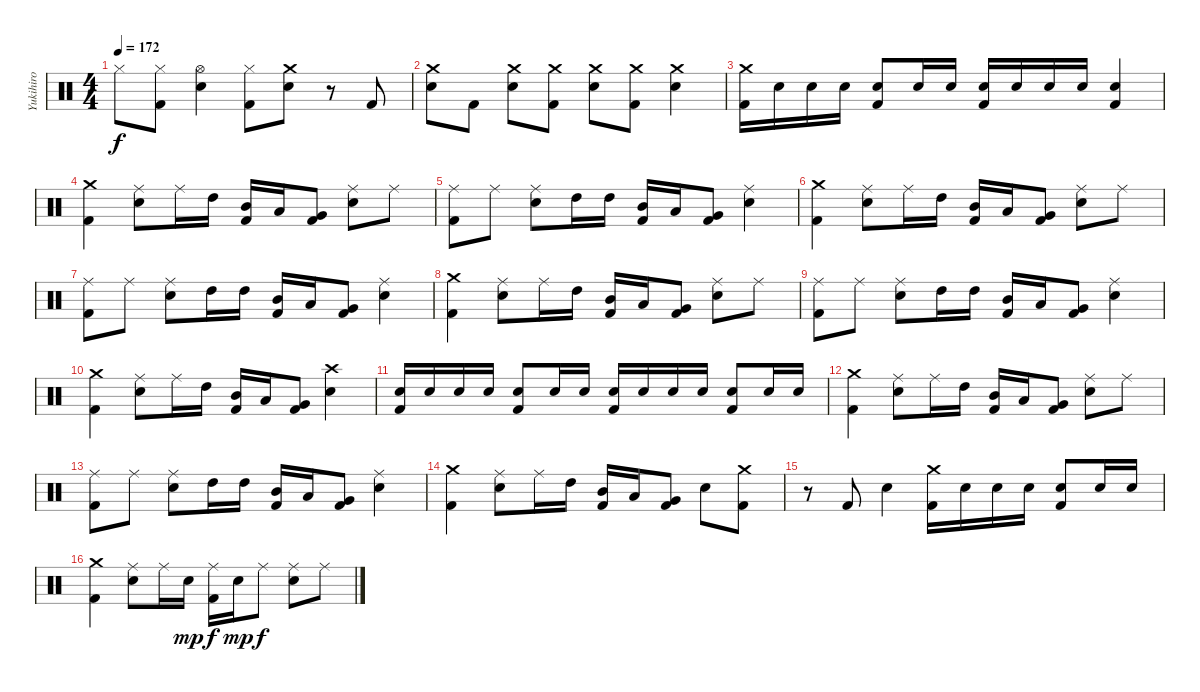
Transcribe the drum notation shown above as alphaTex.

\track ("Yukihiro" "Yukihiro") {instrument percussion}
\staff {score}
\articulation defaults
\ts (4 4)
\tempo 172
\clef neutral
\ks c "Hi-Hat (closed)".8{dy f}
("Hi-Hat (closed)" "Kick (hit) 2").8 ("Hi-Hat (open)" "Electric Snare (hit)").4 ("Hi-Hat (closed)" "Kick (hit) 2").8 ("Crash medium (hit)" "Electric Snare (hit)").8 r.8 "Kick (hit) 2".8 |
("Crash medium (hit)" "Electric Snare (hit)").8 "Kick (hit) 2".8 ("Crash medium (hit)" "Electric Snare (hit)").8 ("Crash medium (hit)" "Kick (hit) 2").8 ("Crash medium (hit)" "Electric Snare (hit)").8 ("Crash medium (hit)" "Kick (hit) 2").8 ("Crash medium (hit)" "Electric Snare (hit)").4 |
("Crash medium (hit)" "Kick (hit) 2").16 "Electric Snare (hit)".16 "Electric Snare (hit)".16 "Electric Snare (hit)".16 ("Electric Snare (hit)" "Kick (hit) 2").8 "Electric Snare (hit)".16 "Electric Snare (hit)".16 ("Electric Snare (hit)" "Kick (hit) 2").16 "Electric Snare (hit)".16 "Electric Snare (hit)".16 "Electric Snare (hit)".16 ("Electric Snare (hit)" "Kick (hit) 2").4 |
("Crash medium (hit)" "Kick (hit) 2").4 ("Ride (middle)" "Electric Snare (hit)").8 "Ride (middle)".16 "High Tom (hit)".16 ("Mid Tom (hit)" "Kick (hit) 2").16 "Low Tom (hit)".16 ("Very Low Tom (hit)" "Kick (hit) 2").8 ("Ride (middle)" "Electric Snare (hit)").8 "Ride (middle)".8 |
("Ride (middle)" "Kick (hit) 2").8 "Ride (middle)".8 ("Ride (middle)" "Electric Snare (hit)").8 "High Tom (hit)".16 "High Tom (hit)".16 ("Mid Tom (hit)" "Kick (hit) 2").16 "Low Tom (hit)".16 ("Very Low Tom (hit)" "Kick (hit) 2").8 ("Ride (middle)" "Electric Snare (hit)").4 |
("Crash medium (hit)" "Kick (hit) 2").4 ("Ride (middle)" "Electric Snare (hit)").8 "Ride (middle)".16 "High Tom (hit)".16 ("Mid Tom (hit)" "Kick (hit) 2").16 "Low Tom (hit)".16 ("Very Low Tom (hit)" "Kick (hit) 2").8 ("Ride (middle)" "Electric Snare (hit)").8 "Ride (middle)".8 |
("Ride (middle)" "Kick (hit) 2").8 "Ride (middle)".8 ("Ride (middle)" "Electric Snare (hit)").8 "High Tom (hit)".16 "High Tom (hit)".16 ("Mid Tom (hit)" "Kick (hit) 2").16 "Low Tom (hit)".16 ("Very Low Tom (hit)" "Kick (hit) 2").8 ("Ride (middle)" "Electric Snare (hit)").4 |
("Crash medium (hit)" "Kick (hit) 2").4 ("Ride (middle)" "Electric Snare (hit)").8 "Ride (middle)".16 "High Tom (hit)".16 ("Mid Tom (hit)" "Kick (hit) 2").16 "Low Tom (hit)".16 ("Very Low Tom (hit)" "Kick (hit) 2").8 ("Ride (middle)" "Electric Snare (hit)").8 "Ride (middle)".8 |
("Ride (middle)" "Kick (hit) 2").8 "Ride (middle)".8 ("Ride (middle)" "Electric Snare (hit)").8 "High Tom (hit)".16 "High Tom (hit)".16 ("Mid Tom (hit)" "Kick (hit) 2").16 "Low Tom (hit)".16 ("Very Low Tom (hit)" "Kick (hit) 2").8 ("Ride (middle)" "Electric Snare (hit)").4 |
("Crash medium (hit)" "Kick (hit) 2").4 ("Ride (middle)" "Electric Snare (hit)").8 "Ride (middle)".16 "High Tom (hit)".16 ("Mid Tom (hit)" "Kick (hit) 2").16 "Low Tom (hit)".16 ("Very Low Tom (hit)" "Kick (hit) 2").8 ("Crash high (hit)" "Electric Snare (hit)").4 |
("Electric Snare (hit)" "Kick (hit) 2").16 "Electric Snare (hit)".16 "Electric Snare (hit)".16 "Electric Snare (hit)".16 ("Electric Snare (hit)" "Kick (hit) 2").8 "Electric Snare (hit)".16 "Electric Snare (hit)".16 ("Electric Snare (hit)" "Kick (hit) 2").16 "Electric Snare (hit)".16 "Electric Snare (hit)".16 "Electric Snare (hit)".16 ("Electric Snare (hit)" "Kick (hit) 2").8 "Electric Snare (hit)".16 "Electric Snare (hit)".16 |
("Crash medium (hit)" "Kick (hit) 2").4 ("Ride (middle)" "Electric Snare (hit)").8 "Ride (middle)".16 "High Tom (hit)".16 ("Mid Tom (hit)" "Kick (hit) 2").16 "Low Tom (hit)".16 ("Very Low Tom (hit)" "Kick (hit) 2").8 ("Ride (middle)" "Electric Snare (hit)").8 "Ride (middle)".8 |
("Ride (middle)" "Kick (hit) 2").8 "Ride (middle)".8 ("Ride (middle)" "Electric Snare (hit)").8 "High Tom (hit)".16 "High Tom (hit)".16 ("Mid Tom (hit)" "Kick (hit) 2").16 "Low Tom (hit)".16 ("Very Low Tom (hit)" "Kick (hit) 2").8 ("Ride (middle)" "Electric Snare (hit)").4 |
("Crash medium (hit)" "Kick (hit) 2").4 ("Ride (middle)" "Electric Snare (hit)").8 "Ride (middle)".16 "High Tom (hit)".16 ("Mid Tom (hit)" "Kick (hit) 2").16 "Low Tom (hit)".16 ("Very Low Tom (hit)" "Kick (hit) 2").8 "Electric Snare (hit)".8 ("Crash medium (hit)" "Kick (hit) 2").8 |
r.8 "Kick (hit) 2".8 "Electric Snare (hit)".4 ("Crash medium (hit)" "Kick (hit) 2").16 "Electric Snare (hit)".16 "Electric Snare (hit)".16 "Electric Snare (hit)".16 ("Electric Snare (hit)" "Kick (hit) 2").8 "Electric Snare (hit)".16 "Electric Snare (hit)".16 |
("Crash medium (hit)" "Kick (hit) 2").4 ("Ride (middle)" "Electric Snare (hit)").8 "Ride (middle)".16 "Electric Snare (hit)".16{dy mp} ("Ride (middle)" "Kick (hit) 2").16{dy f} "Electric Snare (hit)".16{dy mp} "Ride (middle)".8{dy f} ("Ride (middle)" "Electric Snare (hit)").8 "Ride (middle)".8
